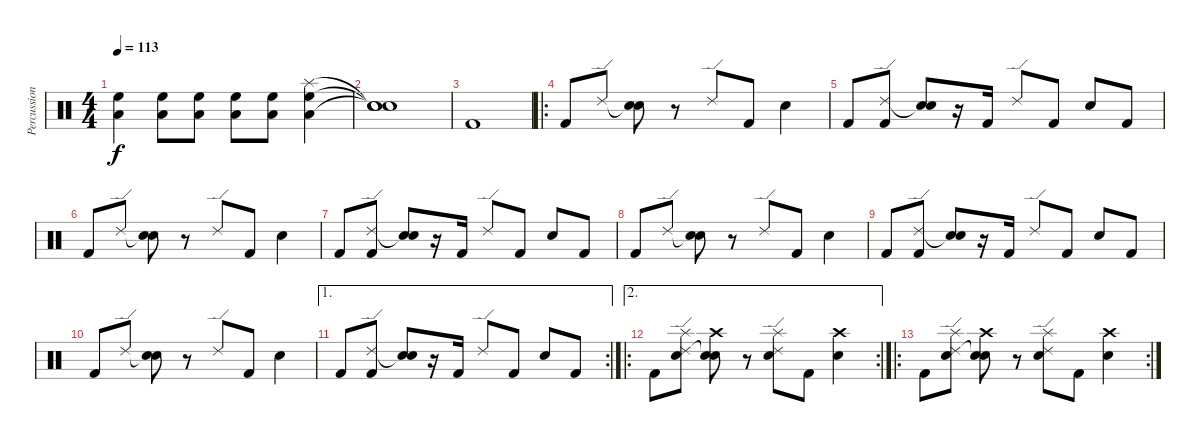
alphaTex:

\track ("Percussion" "Percussion") {instrument percussion}
\staff {score}
\articulation defaults
\ts (4 4)
\tempo 113
\clef neutral
\ks c
("High Floor Tom (hit)" "Low Tom (hit)").4{dy f} ("High Floor Tom (hit)" "Low Tom (hit)").8 ("High Floor Tom (hit)" "Low Tom (hit)").8 ("High Floor Tom (hit)" "Low Tom (hit)").8 ("High Floor Tom (hit)" "Low Tom (hit)").8 ("Splash (hit)" "High Floor Tom (hit)" "Low Tom (hit)").4 |
("Snare (hit)"{t} "Snare (hit)"{t} "Snare (hit)"{t}).1 |
"Kick (hit) 2".1 |
\ro "Kick (hit) 2".8 "Ride (edge) 2".8
("Snare (hit)"{t} "Snare (hit) 2").8 r.8 "Ride (edge) 2".8 "Kick (hit) 2".8 "Snare (hit) 2".4 |
"Kick (hit) 2".8 ("Ride (edge) 2" "Kick (hit) 2").8 ("Snare (hit)"{t} "Snare (hit) 2").8 r.16 "Kick (hit) 2".16 "Ride (edge) 2".8 "Kick (hit) 2".8 "Snare (hit) 2".8 "Kick (hit) 2".8 |
"Kick (hit) 2".8 "Ride (edge) 2".8 ("Snare (hit)"{t} "Snare (hit) 2").8 r.8 "Ride (edge) 2".8 "Kick (hit) 2".8 "Snare (hit) 2".4 |
"Kick (hit) 2".8 ("Ride (edge) 2" "Kick (hit) 2").8 ("Snare (hit)"{t} "Snare (hit) 2").8 r.16 "Kick (hit) 2".16 "Ride (edge) 2".8 "Kick (hit) 2".8 "Snare (hit) 2".8 "Kick (hit) 2".8 |
"Kick (hit) 2".8 "Ride (edge) 2".8 ("Snare (hit)"{t} "Snare (hit) 2").8 r.8 "Ride (edge) 2".8 "Kick (hit) 2".8 "Snare (hit) 2".4 |
"Kick (hit) 2".8 ("Ride (edge) 2" "Kick (hit) 2").8 ("Snare (hit)"{t} "Snare (hit) 2").8 r.16 "Kick (hit) 2".16 "Ride (edge) 2".8 "Kick (hit) 2".8 "Snare (hit) 2".8 "Kick (hit) 2".8 |
"Kick (hit) 2".8 "Ride (edge) 2".8 ("Snare (hit)"{t} "Snare (hit) 2").8 r.8 "Ride (edge) 2".8 "Kick (hit) 2".8 "Snare (hit) 2".4 |
\ae 1
\rc 2 "Kick (hit) 2".8
("Ride (edge) 2" "Kick (hit) 2").8 ("Snare (hit)"{t} "Snare (hit) 2").8 r.16 "Kick (hit) 2".16 "Ride (edge) 2".8 "Kick (hit) 2".8 "Snare (hit) 2".8 "Kick (hit) 2".8 |
\ae 2
\ro
\rc 2 "Kick (hit) 2".8
("Ride (edge) 2" "Splash (hit)" "Snare (hit) 2").8 ("Snare (hit)"{t} "Crash high (hit)" "Snare (hit) 2").8 r.8 ("Ride (edge) 2" "Splash (hit)" "Snare (hit) 2").8 "Kick (hit) 2".8 ("Crash high (hit)" "Snare (hit) 2").4 |
\ro
\rc 2 "Kick (hit) 2".8
("Ride (edge) 2" "Splash (hit)" "Snare (hit) 2").8 ("Snare (hit)"{t} "Crash high (hit)" "Snare (hit) 2").8 r.8 ("Ride (edge) 2" "Splash (hit)" "Snare (hit) 2").8 "Kick (hit) 2".8 ("Crash high (hit)" "Snare (hit) 2").4
